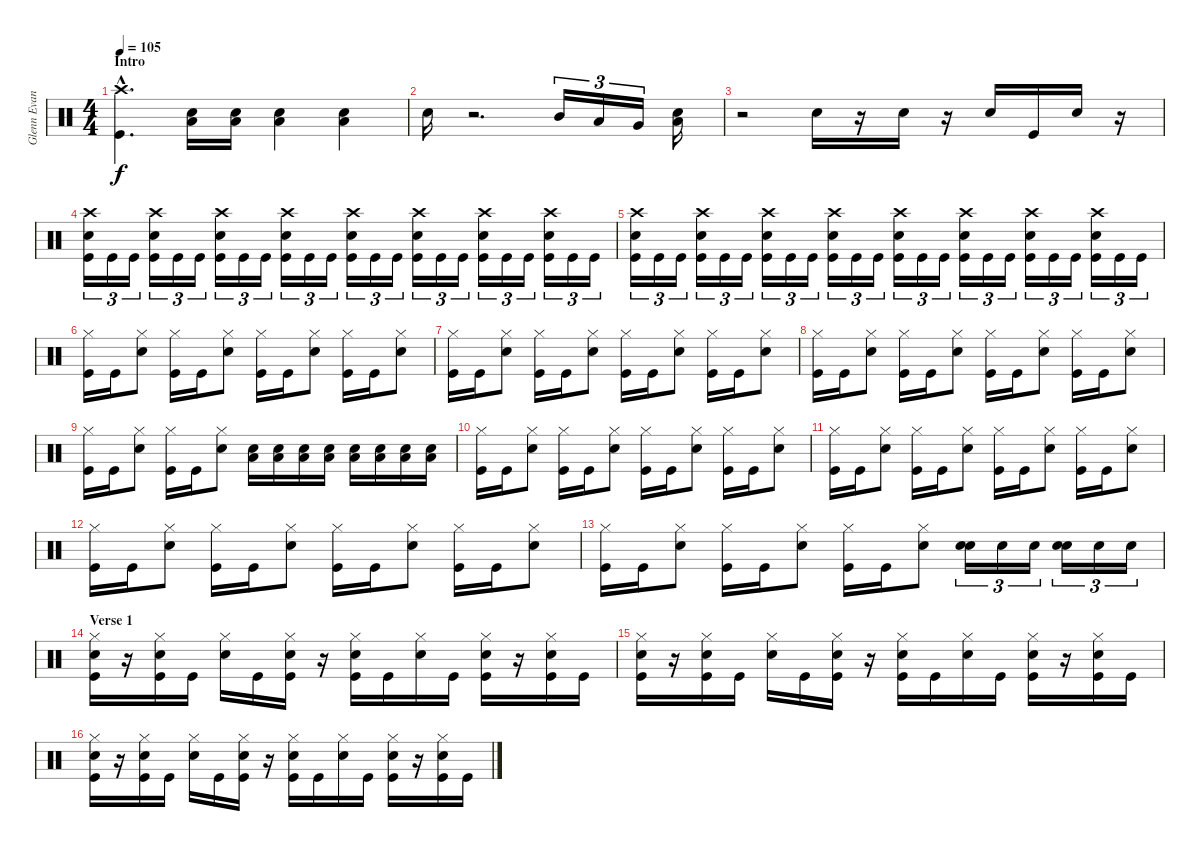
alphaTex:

\track ("Glenn Evans" "Glenn Evan") {instrument percussion}
\staff {score}
\articulation defaults
\ts (4 4)
\section ("" "Intro ")
\tempo 105
\clef neutral
\ks c
("Crash high (hit)"{hac} "Kick (hit)"{hac}).4{d dy f} ("Snare (hit) 2" "Low Floor Tom (hit)").16 ("Snare (hit) 2" "Low Floor Tom (hit)").16 ("Snare (hit) 2" "Low Floor Tom (hit)").4 ("Snare (hit) 2" "Low Floor Tom (hit)").4 |
"Snare (hit) 2".16 r.2{d} "Mid Tom (hit)".16{tu (3 2)} "Low Tom (hit)".16{tu (3 2)} "Very Low Tom (hit)".16{tu (3 2)} ("Snare (hit) 2" "Low Floor Tom (hit)").16 |
r.2 "Snare (hit) 2".16 r.16 "Snare (hit) 2".16 r.16 "Snare (hit) 2".16 "Kick (hit)".16 "Snare (hit) 2".16 r.16 |
("Crash high (hit)" "Snare (hit) 2" "Kick (hit)").16{tu (3 2)} "Kick (hit)".16{tu (3 2)} "Kick (hit)".16{tu (3 2)} ("Crash high (hit)" "Snare (hit) 2" "Kick (hit)").16{tu (3 2)} "Kick (hit)".16{tu (3 2)} "Kick (hit)".16{tu (3 2)} ("Crash high (hit)" "Snare (hit) 2" "Kick (hit)").16{tu (3 2)} "Kick (hit)".16{tu (3 2)} "Kick (hit)".16{tu (3 2)} ("Crash high (hit)" "Snare (hit) 2" "Kick (hit)").16{tu (3 2)} "Kick (hit)".16{tu (3 2)} "Kick (hit)".16{tu (3 2)} ("Crash high (hit)" "Snare (hit) 2" "Kick (hit)").16{tu (3 2)} "Kick (hit)".16{tu (3 2)} "Kick (hit)".16{tu (3 2)} ("Crash high (hit)" "Snare (hit) 2" "Kick (hit)").16{tu (3 2)} "Kick (hit)".16{tu (3 2)} "Kick (hit)".16{tu (3 2)} ("Crash high (hit)" "Snare (hit) 2" "Kick (hit)").16{tu (3 2)} "Kick (hit)".16{tu (3 2)} "Kick (hit)".16{tu (3 2)} ("Crash high (hit)" "Snare (hit) 2" "Kick (hit)").16{tu (3 2)} "Kick (hit)".16{tu (3 2)} "Kick (hit)".16{tu (3 2)} |
("Crash high (hit)" "Snare (hit) 2" "Kick (hit)").16{tu (3 2)} "Kick (hit)".16{tu (3 2)} "Kick (hit)".16{tu (3 2)} ("Crash high (hit)" "Snare (hit) 2" "Kick (hit)").16{tu (3 2)} "Kick (hit)".16{tu (3 2)} "Kick (hit)".16{tu (3 2)} ("Crash high (hit)" "Snare (hit) 2" "Kick (hit)").16{tu (3 2)} "Kick (hit)".16{tu (3 2)} "Kick (hit)".16{tu (3 2)} ("Crash high (hit)" "Snare (hit) 2" "Kick (hit)").16{tu (3 2)} "Kick (hit)".16{tu (3 2)} "Kick (hit)".16{tu (3 2)} ("Crash high (hit)" "Snare (hit) 2" "Kick (hit)").16{tu (3 2)} "Kick (hit)".16{tu (3 2)} "Kick (hit)".16{tu (3 2)} ("Crash high (hit)" "Snare (hit) 2" "Kick (hit)").16{tu (3 2)} "Kick (hit)".16{tu (3 2)} "Kick (hit)".16{tu (3 2)} ("Crash high (hit)" "Snare (hit) 2" "Kick (hit)").16{tu (3 2)} "Kick (hit)".16{tu (3 2)} "Kick (hit)".16{tu (3 2)} ("Crash high (hit)" "Snare (hit) 2" "Kick (hit)").16{tu (3 2)} "Kick (hit)".16{tu (3 2)} "Kick (hit)".16{tu (3 2)} |
("Hi-Hat (closed)" "Kick (hit)").16 "Kick (hit)".16 ("Hi-Hat (closed)" "Snare (hit) 2").8 ("Hi-Hat (closed)" "Kick (hit)").16 "Kick (hit)".16 ("Hi-Hat (closed)" "Snare (hit) 2").8 ("Hi-Hat (closed)" "Kick (hit)").16 "Kick (hit)".16 ("Hi-Hat (closed)" "Snare (hit) 2").8 ("Hi-Hat (closed)" "Kick (hit)").16 "Kick (hit)".16 ("Hi-Hat (closed)" "Snare (hit) 2").8 |
("Hi-Hat (closed)" "Kick (hit)").16 "Kick (hit)".16 ("Hi-Hat (closed)" "Snare (hit) 2").8 ("Hi-Hat (closed)" "Kick (hit)").16 "Kick (hit)".16 ("Hi-Hat (closed)" "Snare (hit) 2").8 ("Hi-Hat (closed)" "Kick (hit)").16 "Kick (hit)".16 ("Hi-Hat (closed)" "Snare (hit) 2").8 ("Hi-Hat (closed)" "Kick (hit)").16 "Kick (hit)".16 ("Hi-Hat (closed)" "Snare (hit) 2").8 |
("Hi-Hat (closed)" "Kick (hit)").16 "Kick (hit)".16 ("Hi-Hat (closed)" "Snare (hit) 2").8 ("Hi-Hat (closed)" "Kick (hit)").16 "Kick (hit)".16 ("Hi-Hat (closed)" "Snare (hit) 2").8 ("Hi-Hat (closed)" "Kick (hit)").16 "Kick (hit)".16 ("Hi-Hat (closed)" "Snare (hit) 2").8 ("Hi-Hat (closed)" "Kick (hit)").16 "Kick (hit)".16 ("Hi-Hat (closed)" "Snare (hit) 2").8 |
("Hi-Hat (closed)" "Kick (hit)").16 "Kick (hit)".16 ("Hi-Hat (closed)" "Snare (hit) 2").8 ("Hi-Hat (closed)" "Kick (hit)").16 "Kick (hit)".16 ("Hi-Hat (closed)" "Snare (hit) 2").8 ("Snare (hit) 2" "Low Floor Tom (hit)").16 ("Snare (hit) 2" "Low Floor Tom (hit)").16 ("Snare (hit) 2" "Low Floor Tom (hit)").16 ("Snare (hit) 2" "Low Floor Tom (hit)").16 ("Snare (hit) 2" "Low Floor Tom (hit)").16 ("Snare (hit) 2" "Low Floor Tom (hit)").16 ("Snare (hit) 2" "Low Floor Tom (hit)").16 ("Snare (hit) 2" "Low Floor Tom (hit)").16 |
("Hi-Hat (closed)" "Kick (hit)").16 "Kick (hit)".16 ("Hi-Hat (closed)" "Snare (hit) 2").8 ("Hi-Hat (closed)" "Kick (hit)").16 "Kick (hit)".16 ("Hi-Hat (closed)" "Snare (hit) 2").8 ("Hi-Hat (closed)" "Kick (hit)").16 "Kick (hit)".16 ("Hi-Hat (closed)" "Snare (hit) 2").8 ("Hi-Hat (closed)" "Kick (hit)").16 "Kick (hit)".16 ("Hi-Hat (closed)" "Snare (hit) 2").8 |
("Hi-Hat (closed)" "Kick (hit)").16 "Kick (hit)".16 ("Hi-Hat (closed)" "Snare (hit) 2").8 ("Hi-Hat (closed)" "Kick (hit)").16 "Kick (hit)".16 ("Hi-Hat (closed)" "Snare (hit) 2").8 ("Hi-Hat (closed)" "Kick (hit)").16 "Kick (hit)".16 ("Hi-Hat (closed)" "Snare (hit) 2").8 ("Hi-Hat (closed)" "Kick (hit)").16 "Kick (hit)".16 ("Hi-Hat (closed)" "Snare (hit) 2").8 |
("Hi-Hat (closed)" "Kick (hit)").16 "Kick (hit)".16 ("Hi-Hat (closed)" "Snare (hit) 2").8 ("Hi-Hat (closed)" "Kick (hit)").16 "Kick (hit)".16 ("Hi-Hat (closed)" "Snare (hit) 2").8 ("Hi-Hat (closed)" "Kick (hit)").16 "Kick (hit)".16 ("Hi-Hat (closed)" "Snare (hit) 2").8 ("Hi-Hat (closed)" "Kick (hit)").16 "Kick (hit)".16 ("Hi-Hat (closed)" "Snare (hit) 2").8 |
("Hi-Hat (closed)" "Kick (hit)").16 "Kick (hit)".16 ("Hi-Hat (closed)" "Snare (hit) 2").8 ("Hi-Hat (closed)" "Kick (hit)").16 "Kick (hit)".16 ("Hi-Hat (closed)" "Snare (hit) 2").8 ("Hi-Hat (closed)" "Kick (hit)").16 "Kick (hit)".16 ("Hi-Hat (closed)" "Snare (hit) 2").8 ("Snare (hit) 2" "Snare (hit) 2").16{tu (3 2)} "Snare (hit) 2".16{tu (3 2)} "Snare (hit) 2".16{tu (3 2)} ("Snare (hit) 2" "Snare (hit) 2").16{tu (3 2)} "Snare (hit) 2".16{tu (3 2)} "Snare (hit) 2".16{tu (3 2)} |
\section ("" "Verse 1")
("Hi-Hat (closed)" "Snare (hit) 2" "Kick (hit)").16 r.16 ("Hi-Hat (closed)" "Snare (hit) 2" "Kick (hit)").16 "Kick (hit)".16 ("Hi-Hat (closed)" "Snare (hit) 2").16 "Kick (hit)".16 ("Hi-Hat (closed)" "Snare (hit) 2" "Kick (hit)").16 r.16 ("Hi-Hat (closed)" "Snare (hit) 2" "Kick (hit)").16 "Kick (hit)".16 ("Hi-Hat (closed)" "Snare (hit) 2").16 "Kick (hit)".16 ("Hi-Hat (closed)" "Snare (hit) 2" "Kick (hit)").16 r.16 ("Hi-Hat (closed)" "Snare (hit) 2" "Kick (hit)").16 "Kick (hit)".16 |
("Hi-Hat (closed)" "Snare (hit) 2" "Kick (hit)").16 r.16 ("Hi-Hat (closed)" "Snare (hit) 2" "Kick (hit)").16 "Kick (hit)".16 ("Hi-Hat (closed)" "Snare (hit) 2").16 "Kick (hit)".16 ("Hi-Hat (closed)" "Snare (hit) 2" "Kick (hit)").16 r.16 ("Hi-Hat (closed)" "Snare (hit) 2" "Kick (hit)").16 "Kick (hit)".16 ("Hi-Hat (closed)" "Snare (hit) 2").16 "Kick (hit)".16 ("Hi-Hat (closed)" "Snare (hit) 2" "Kick (hit)").16 r.16 ("Hi-Hat (closed)" "Snare (hit) 2" "Kick (hit)").16 "Kick (hit)".16 |
("Hi-Hat (closed)" "Snare (hit) 2" "Kick (hit)").16 r.16 ("Hi-Hat (closed)" "Snare (hit) 2" "Kick (hit)").16 "Kick (hit)".16 ("Hi-Hat (closed)" "Snare (hit) 2").16 "Kick (hit)".16 ("Hi-Hat (closed)" "Snare (hit) 2" "Kick (hit)").16 r.16 ("Hi-Hat (closed)" "Snare (hit) 2" "Kick (hit)").16 "Kick (hit)".16 ("Hi-Hat (closed)" "Snare (hit) 2").16 "Kick (hit)".16 ("Hi-Hat (closed)" "Snare (hit) 2" "Kick (hit)").16 r.16 ("Hi-Hat (closed)" "Snare (hit) 2" "Kick (hit)").16 "Kick (hit)".16
